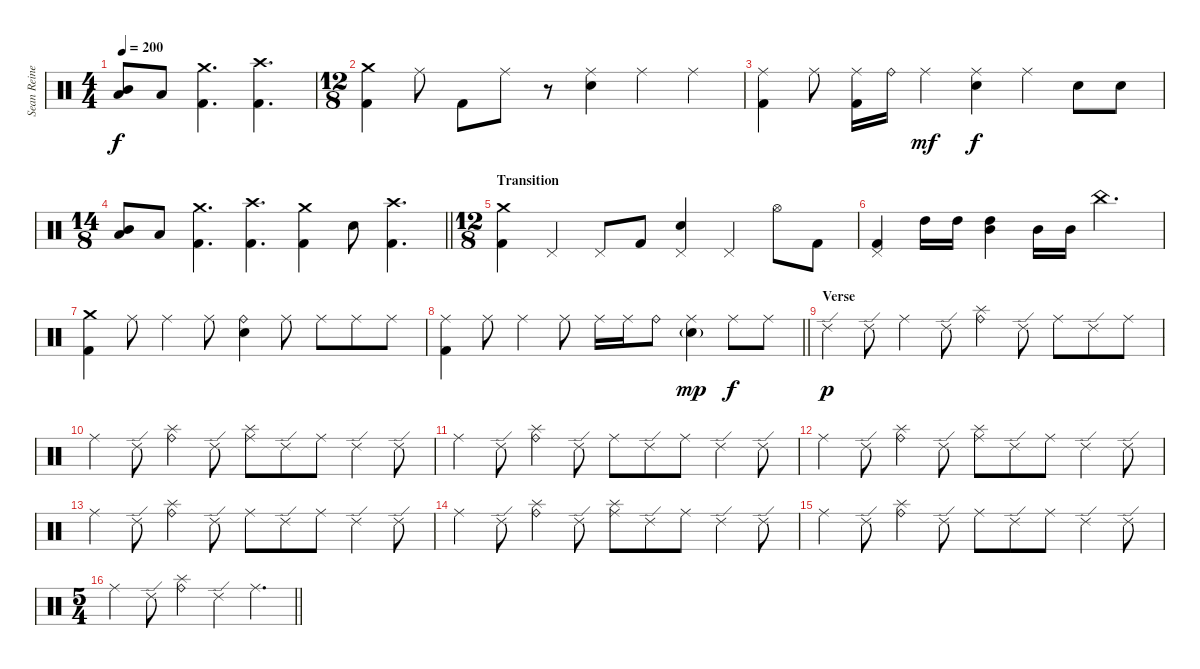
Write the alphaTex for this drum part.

\track ("Sean Reinert" "Sean Reine") {instrument percussion}
\staff {score}
\articulation defaults
\ts (4 4)
\tempo 200
\clef neutral
\ks c
("Mid Tom (hit)" "Low Tom (hit)").8{dy f} "Low Tom (hit)".8 ("Crash medium (hit)" "Kick (hit) 2").4{d} ("Crash high (hit)" "Kick (hit) 2").4{d} |
\ts (12 8)
("Crash medium (hit)" "Kick (hit) 2").4 "Ride (middle)".8 "Kick (hit) 2".8 "Ride (middle)".8 r.8 ("Ride (middle)" "Snare (hit) 2").4 "Ride (middle)".4 "Ride (middle)".4 |
("Ride (middle)" "Kick (hit) 2").4 "Ride (middle)".8 ("Ride (middle)" "Kick (hit) 2").16 "Ride (bell)".16 "Ride (middle)".4{dy mf} ("Ride (middle)" "Snare (hit) 2").4{dy f} "Ride (middle)".4 "Snare (hit) 2".8 "Snare (hit) 2".8 |
\ts (14 8)
\barLineRight lightlight
("Mid Tom (hit)" "Low Tom (hit)").8 "Low Tom (hit)".8 ("Crash medium (hit)" "Kick (hit) 2").4{d} ("Crash high (hit)" "Kick (hit) 2").4{d} ("Crash medium (hit)" "Kick (hit) 2").4 "Snare (hit) 2".8 ("Crash high (hit)" "Kick (hit) 2").4{d} |
\ts (12 8)
\section ("" "Transition")
("Crash medium (hit)" "Kick (hit) 2").4 "Pedal Hi-Hat (hit)".4 "Pedal Hi-Hat (hit)".8 "Kick (hit) 2".8 ("Pedal Hi-Hat (hit)" "Snare (hit) 2").4 "Pedal Hi-Hat (hit)".4 "Hi-Hat (open)".8 "Kick (hit) 2".8 |
("Pedal Hi-Hat (hit)" "Kick (hit) 2").4 "High Tom (hit)".16 "High Tom (hit)".16 ("Mid Tom (hit)" "High Tom (hit)").4 "Mid Tom (hit)".16 "Mid Tom (hit)".16 "China (hit)".2{d} |
("Crash medium (hit)" "Kick (hit) 2").4 "Ride (middle)".8 "Ride (middle)".4 "Ride (middle)".8 ("Ride (bell)" "Snare (hit) 2").4 "Ride (middle)".8 "Ride (middle)".8 "Ride (middle)".8 "Ride (middle)".8 |
\barLineRight lightlight
("Ride (middle)" "Kick (hit) 2").4 "Ride (middle)".8 "Ride (middle)".4 "Ride (middle)".8 "Ride (middle)".16 "Ride (middle)".16 "Ride (bell)".8 ("Ride (middle)" "Snare (hit) 2"{g}).4{dy mp} "Ride (middle)".8{dy f} "Ride (middle)".8 |
\section ("" "Verse")
"Ride (edge) 2".4{dy p} "Ride (edge) 2".8 "Ride (middle)".4 "Ride (edge) 2".8 ("Splash (hit)" "Ride (bell)").4 "Ride (edge) 2".8 "Ride (middle)".8 "Ride (edge) 2".8 "Ride (middle)".8 |
"Ride (middle)".4 "Ride (edge) 2".8 ("Splash (hit)" "Ride (bell)").4 "Ride (edge) 2".8 ("Splash (hit)" "Ride (middle)").8 "Ride (edge) 2".8 "Ride (middle)".8 "Ride (edge) 2".4 "Ride (edge) 2".8 |
"Ride (middle)".4 "Ride (edge) 2".8 ("Splash (hit)" "Ride (bell)").4 "Ride (edge) 2".8 "Ride (middle)".8 "Ride (edge) 2".8 "Ride (middle)".8 "Ride (edge) 2".4 "Ride (edge) 2".8 |
"Ride (middle)".4 "Ride (edge) 2".8 ("Splash (hit)" "Ride (bell)").4 "Ride (edge) 2".8 ("Splash (hit)" "Ride (middle)").8 "Ride (edge) 2".8 "Ride (middle)".8 "Ride (edge) 2".4 "Ride (edge) 2".8 |
"Ride (middle)".4 "Ride (edge) 2".8 ("Splash (hit)" "Ride (bell)").4 "Ride (edge) 2".8 "Ride (middle)".8 "Ride (edge) 2".8 "Ride (middle)".8 "Ride (edge) 2".4 "Ride (edge) 2".8 |
"Ride (middle)".4 "Ride (edge) 2".8 ("Splash (hit)" "Ride (bell)").4 "Ride (edge) 2".8 ("Splash (hit)" "Ride (middle)").8 "Ride (edge) 2".8 "Ride (middle)".8 "Ride (edge) 2".4 "Ride (edge) 2".8 |
"Ride (middle)".4 "Ride (edge) 2".8 ("Splash (hit)" "Ride (bell)").4 "Ride (edge) 2".8 "Ride (middle)".8 "Ride (edge) 2".8 "Ride (middle)".8 "Ride (edge) 2".4 "Ride (edge) 2".8 |
\ts (5 4)
\barLineRight lightlight "Ride (middle)".4 "Ride (edge) 2".8
("Splash (hit)" "Ride (bell)").4 "Ride (edge) 2".4 "Ride (middle)".4{d}
